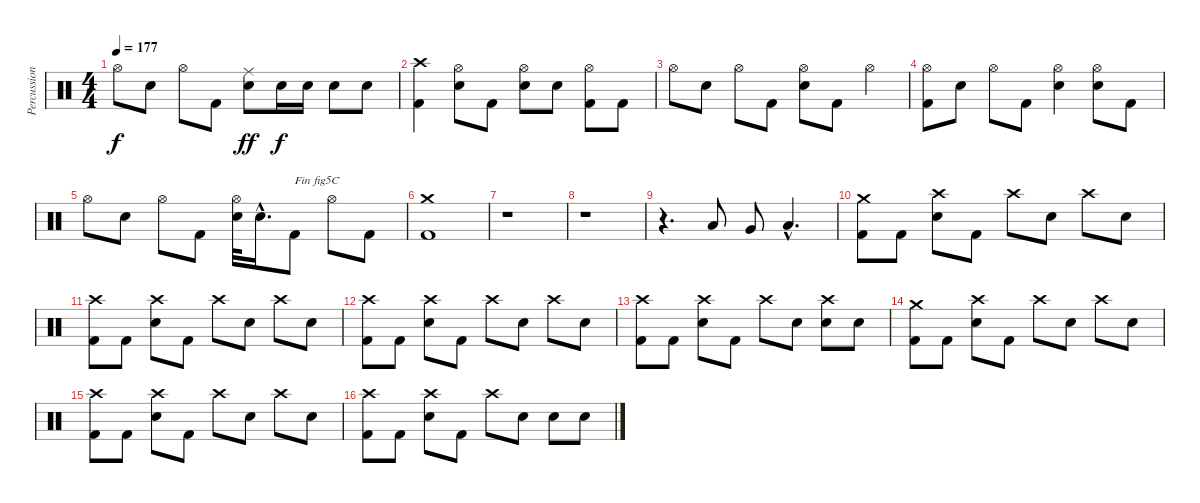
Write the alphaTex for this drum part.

\track ("Percussions" "Percussion") {instrument percussion}
\staff {score}
\articulation defaults
\ts (4 4)
\tempo 177
\clef neutral
\ks c "Hi-Hat (open)".8{dy f} "Electric Snare (hit)".8 "Hi-Hat (open)".8 "Kick (hit) 2".8
("Electric Snare (hit)" "Ride (middle)").8{dy ff} "Electric Snare (hit)".16{dy f} "Electric Snare (hit)".16 "Electric Snare (hit)".8 "Electric Snare (hit)".8 |
("Kick (hit) 2" "Crash high (hit)").4 ("Electric Snare (hit)" "Hi-Hat (open)").8 "Kick (hit) 2".8 ("Electric Snare (hit)" "Hi-Hat (open)").8 "Electric Snare (hit)".8 ("Kick (hit) 2" "Hi-Hat (open)").8 "Kick (hit) 2".8 |
"Hi-Hat (open)".8 "Electric Snare (hit)".8 "Hi-Hat (open)".8 "Kick (hit) 2".8 ("Electric Snare (hit)" "Hi-Hat (open)").8 "Kick (hit) 2".8 "Hi-Hat (open)".4 |
("Kick (hit) 2" "Hi-Hat (open)").8 "Electric Snare (hit)".8 "Hi-Hat (open)".8 "Kick (hit) 2".8 ("Electric Snare (hit)" "Hi-Hat (open)").4 ("Electric Snare (hit)" "Hi-Hat (open)").8 "Kick (hit) 2".8 |
"Hi-Hat (open)".8 "Electric Snare (hit)".8 "Hi-Hat (open)".8 "Kick (hit) 2".8 ("Electric Snare (hit)" "Hi-Hat (open)").32 "Electric Snare (hit)"{hac}.16{d} "Kick (hit) 2".8{txt "Fin fig5C"} "Hi-Hat (open)".8 "Kick (hit) 2".8 |
("Kick (hit) 2" "Crash medium (hit)").1 |
r.1 |
r.1 |
r.4{d} "Low Floor Tom (hit)".8 "Very Low Tom (hit)".8 "Low Floor Tom (hit)"{hac}.4{d} |
("Kick (hit) 2" "Crash medium (hit)").8 "Kick (hit) 2".8 ("Electric Snare (hit)" "Crash high (hit)").8 "Kick (hit) 2".8 "Crash high (hit)".8 "Electric Snare (hit)".8 "Crash high (hit)".8 "Electric Snare (hit)".8 |
("Kick (hit) 2" "Crash high (hit)").8 "Kick (hit) 2".8 ("Electric Snare (hit)" "Crash high (hit)").8 "Kick (hit) 2".8 "Crash high (hit)".8 "Electric Snare (hit)".8 "Crash high (hit)".8 "Electric Snare (hit)".8 |
("Kick (hit) 2" "Crash high (hit)").8 "Kick (hit) 2".8 ("Electric Snare (hit)" "Crash high (hit)").8 "Kick (hit) 2".8 "Crash high (hit)".8 "Electric Snare (hit)".8 "Crash high (hit)".8 "Electric Snare (hit)".8 |
("Kick (hit) 2" "Crash high (hit)").8 "Kick (hit) 2".8 ("Electric Snare (hit)" "Crash high (hit)").8 "Kick (hit) 2".8 "Crash high (hit)".8 "Electric Snare (hit)".8 ("Electric Snare (hit)" "Crash high (hit)").8 "Electric Snare (hit)".8 |
("Kick (hit) 2" "Crash medium (hit)").8 "Kick (hit) 2".8 ("Electric Snare (hit)" "Crash high (hit)").8 "Kick (hit) 2".8 "Crash high (hit)".8 "Electric Snare (hit)".8 "Crash high (hit)".8 "Electric Snare (hit)".8 |
("Kick (hit) 2" "Crash high (hit)").8 "Kick (hit) 2".8 ("Electric Snare (hit)" "Crash high (hit)").8 "Kick (hit) 2".8 "Crash high (hit)".8 "Electric Snare (hit)".8 "Crash high (hit)".8 "Electric Snare (hit)".8 |
("Kick (hit) 2" "Crash high (hit)").8 "Kick (hit) 2".8 ("Electric Snare (hit)" "Crash high (hit)").8 "Kick (hit) 2".8 "Crash high (hit)".8 "Electric Snare (hit)".8 "Electric Snare (hit)".8 "Electric Snare (hit)".8
